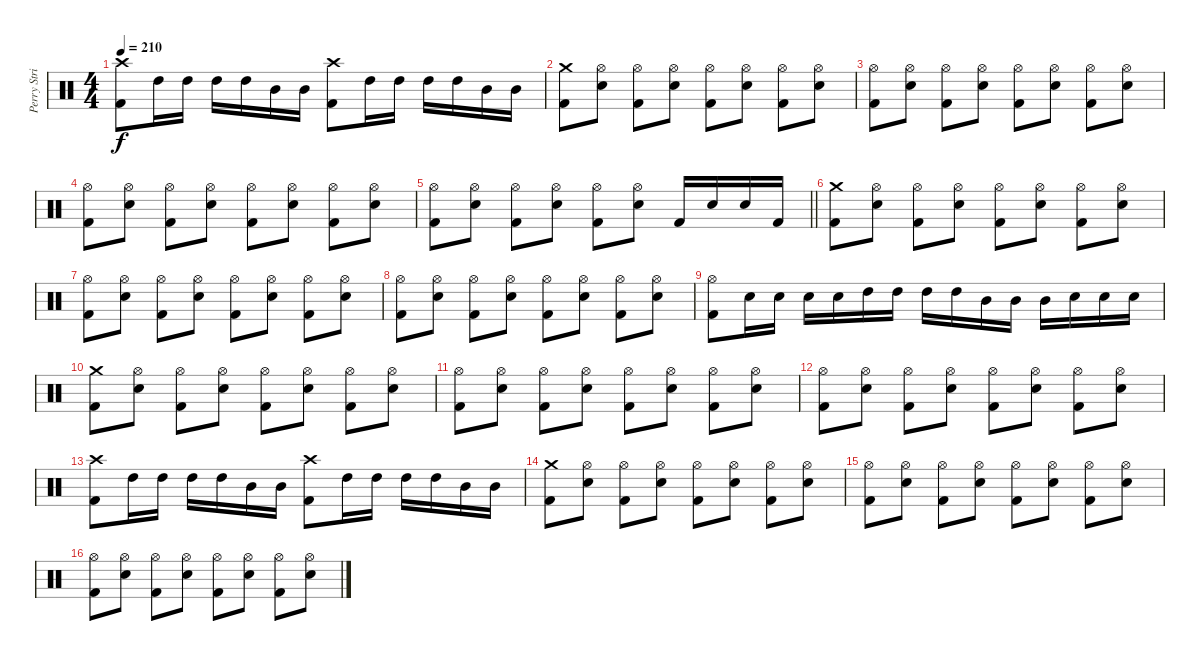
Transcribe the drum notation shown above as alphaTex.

\track ("Perry Strickland" "Perry Stri") {instrument percussion}
\staff {score}
\articulation defaults
\ts (4 4)
\tempo 210
\clef neutral
\ks c
("Crash high (hit)" "Kick (hit) 2").8{dy f} "High Tom (hit)".16 "High Tom (hit)".16 "High Tom (hit)".16 "High Tom (hit)".16 "Mid Tom (hit)".16 "Mid Tom (hit)".16 ("Crash high (hit)" "Kick (hit) 2").8 "High Tom (hit)".16 "High Tom (hit)".16 "High Tom (hit)".16 "High Tom (hit)".16 "Mid Tom (hit)".16 "Mid Tom (hit)".16 |
("Crash medium (hit)" "Kick (hit) 2").8 ("Hi-Hat (open)" "Electric Snare (hit)").8 ("Hi-Hat (open)" "Kick (hit) 2").8 ("Hi-Hat (open)" "Electric Snare (hit)").8 ("Hi-Hat (open)" "Kick (hit) 2").8 ("Hi-Hat (open)" "Electric Snare (hit)").8 ("Hi-Hat (open)" "Kick (hit) 2").8 ("Hi-Hat (open)" "Electric Snare (hit)").8 |
("Hi-Hat (open)" "Kick (hit) 2").8 ("Hi-Hat (open)" "Electric Snare (hit)").8 ("Hi-Hat (open)" "Kick (hit) 2").8 ("Hi-Hat (open)" "Electric Snare (hit)").8 ("Hi-Hat (open)" "Kick (hit) 2").8 ("Hi-Hat (open)" "Electric Snare (hit)").8 ("Hi-Hat (open)" "Kick (hit) 2").8 ("Hi-Hat (open)" "Electric Snare (hit)").8 |
("Hi-Hat (open)" "Kick (hit) 2").8 ("Hi-Hat (open)" "Electric Snare (hit)").8 ("Hi-Hat (open)" "Kick (hit) 2").8 ("Hi-Hat (open)" "Electric Snare (hit)").8 ("Hi-Hat (open)" "Kick (hit) 2").8 ("Hi-Hat (open)" "Electric Snare (hit)").8 ("Hi-Hat (open)" "Kick (hit) 2").8 ("Hi-Hat (open)" "Electric Snare (hit)").8 |
\barLineRight lightlight
("Hi-Hat (open)" "Kick (hit) 2").8 ("Hi-Hat (open)" "Electric Snare (hit)").8 ("Hi-Hat (open)" "Kick (hit) 2").8 ("Hi-Hat (open)" "Electric Snare (hit)").8 ("Hi-Hat (open)" "Kick (hit) 2").8 ("Hi-Hat (open)" "Electric Snare (hit)").8 "Kick (hit) 2".16 "Electric Snare (hit)".16 "Electric Snare (hit)".16 "Kick (hit) 2".16 |
("Crash medium (hit)" "Kick (hit) 2").8 ("Hi-Hat (open)" "Electric Snare (hit)").8 ("Hi-Hat (open)" "Kick (hit) 2").8 ("Hi-Hat (open)" "Electric Snare (hit)").8 ("Hi-Hat (open)" "Kick (hit) 2").8 ("Hi-Hat (open)" "Electric Snare (hit)").8 ("Hi-Hat (open)" "Kick (hit) 2").8 ("Hi-Hat (open)" "Electric Snare (hit)").8 |
("Hi-Hat (open)" "Kick (hit) 2").8 ("Hi-Hat (open)" "Electric Snare (hit)").8 ("Hi-Hat (open)" "Kick (hit) 2").8 ("Hi-Hat (open)" "Electric Snare (hit)").8 ("Hi-Hat (open)" "Kick (hit) 2").8 ("Hi-Hat (open)" "Electric Snare (hit)").8 ("Hi-Hat (open)" "Kick (hit) 2").8 ("Hi-Hat (open)" "Electric Snare (hit)").8 |
("Hi-Hat (open)" "Kick (hit) 2").8 ("Hi-Hat (open)" "Electric Snare (hit)").8 ("Hi-Hat (open)" "Kick (hit) 2").8 ("Hi-Hat (open)" "Electric Snare (hit)").8 ("Hi-Hat (open)" "Kick (hit) 2").8 ("Hi-Hat (open)" "Electric Snare (hit)").8 ("Hi-Hat (open)" "Kick (hit) 2").8 ("Hi-Hat (open)" "Electric Snare (hit)").8 |
("Hi-Hat (open)" "Kick (hit) 2").8 "Electric Snare (hit)".16 "Electric Snare (hit)".16 "Electric Snare (hit)".16 "Electric Snare (hit)".16 "High Tom (hit)".16 "High Tom (hit)".16 "High Tom (hit)".16 "High Tom (hit)".16 "Mid Tom (hit)".16 "Mid Tom (hit)".16 "Mid Tom (hit)".16 "Electric Snare (hit)".16 "Electric Snare (hit)".16 "Electric Snare (hit)".16 |
("Crash medium (hit)" "Kick (hit) 2").8 ("Hi-Hat (open)" "Electric Snare (hit)").8 ("Hi-Hat (open)" "Kick (hit) 2").8 ("Hi-Hat (open)" "Electric Snare (hit)").8 ("Hi-Hat (open)" "Kick (hit) 2").8 ("Hi-Hat (open)" "Electric Snare (hit)").8 ("Hi-Hat (open)" "Kick (hit) 2").8 ("Hi-Hat (open)" "Electric Snare (hit)").8 |
("Hi-Hat (open)" "Kick (hit) 2").8 ("Hi-Hat (open)" "Electric Snare (hit)").8 ("Hi-Hat (open)" "Kick (hit) 2").8 ("Hi-Hat (open)" "Electric Snare (hit)").8 ("Hi-Hat (open)" "Kick (hit) 2").8 ("Hi-Hat (open)" "Electric Snare (hit)").8 ("Hi-Hat (open)" "Kick (hit) 2").8 ("Hi-Hat (open)" "Electric Snare (hit)").8 |
("Hi-Hat (open)" "Kick (hit) 2").8 ("Hi-Hat (open)" "Electric Snare (hit)").8 ("Hi-Hat (open)" "Kick (hit) 2").8 ("Hi-Hat (open)" "Electric Snare (hit)").8 ("Hi-Hat (open)" "Kick (hit) 2").8 ("Hi-Hat (open)" "Electric Snare (hit)").8 ("Hi-Hat (open)" "Kick (hit) 2").8 ("Hi-Hat (open)" "Electric Snare (hit)").8 |
("Crash high (hit)" "Kick (hit) 2").8 "High Tom (hit)".16 "High Tom (hit)".16 "High Tom (hit)".16 "High Tom (hit)".16 "Mid Tom (hit)".16 "Mid Tom (hit)".16 ("Crash high (hit)" "Kick (hit) 2").8 "High Tom (hit)".16 "High Tom (hit)".16 "High Tom (hit)".16 "High Tom (hit)".16 "Mid Tom (hit)".16 "Mid Tom (hit)".16 |
("Crash medium (hit)" "Kick (hit) 2").8 ("Hi-Hat (open)" "Electric Snare (hit)").8 ("Hi-Hat (open)" "Kick (hit) 2").8 ("Hi-Hat (open)" "Electric Snare (hit)").8 ("Hi-Hat (open)" "Kick (hit) 2").8 ("Hi-Hat (open)" "Electric Snare (hit)").8 ("Hi-Hat (open)" "Kick (hit) 2").8 ("Hi-Hat (open)" "Electric Snare (hit)").8 |
("Hi-Hat (open)" "Kick (hit) 2").8 ("Hi-Hat (open)" "Electric Snare (hit)").8 ("Hi-Hat (open)" "Kick (hit) 2").8 ("Hi-Hat (open)" "Electric Snare (hit)").8 ("Hi-Hat (open)" "Kick (hit) 2").8 ("Hi-Hat (open)" "Electric Snare (hit)").8 ("Hi-Hat (open)" "Kick (hit) 2").8 ("Hi-Hat (open)" "Electric Snare (hit)").8 |
("Hi-Hat (open)" "Kick (hit) 2").8 ("Hi-Hat (open)" "Electric Snare (hit)").8 ("Hi-Hat (open)" "Kick (hit) 2").8 ("Hi-Hat (open)" "Electric Snare (hit)").8 ("Hi-Hat (open)" "Kick (hit) 2").8 ("Hi-Hat (open)" "Electric Snare (hit)").8 ("Hi-Hat (open)" "Kick (hit) 2").8 ("Hi-Hat (open)" "Electric Snare (hit)").8
